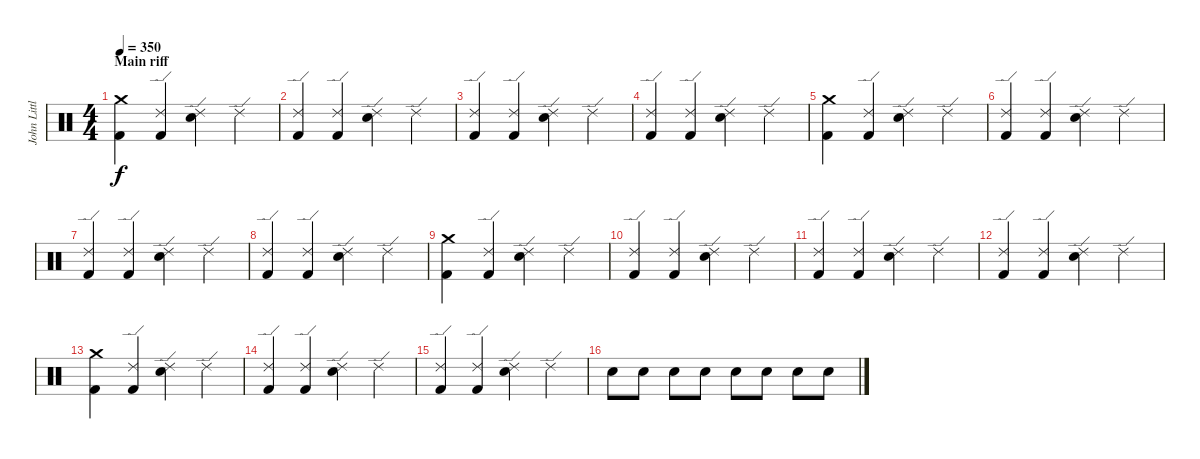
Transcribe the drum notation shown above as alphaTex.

\track ("John Littler - Drums" "John Littl") {instrument percussion}
\staff {score}
\articulation defaults
\ts (4 4)
\section ("" "Main riff")
\tempo 350
\clef neutral
\ks c
("Crash medium (hit)" "Kick (hit) 2").4{dy f} ("Ride (edge) 2" "Kick (hit) 2").4 ("Ride (edge) 2" "Snare (hit) 2").4 "Ride (edge) 2".4 |
("Ride (edge) 2" "Kick (hit) 2").4 ("Ride (edge) 2" "Kick (hit) 2").4 ("Ride (edge) 2" "Snare (hit) 2").4 "Ride (edge) 2".4 |
("Ride (edge) 2" "Kick (hit) 2").4 ("Ride (edge) 2" "Kick (hit) 2").4 ("Ride (edge) 2" "Snare (hit) 2").4 "Ride (edge) 2".4 |
("Ride (edge) 2" "Kick (hit) 2").4 ("Ride (edge) 2" "Kick (hit) 2").4 ("Ride (edge) 2" "Snare (hit) 2").4 "Ride (edge) 2".4 |
("Crash medium (hit)" "Kick (hit) 2").4 ("Ride (edge) 2" "Kick (hit) 2").4 ("Ride (edge) 2" "Snare (hit) 2").4 "Ride (edge) 2".4 |
("Ride (edge) 2" "Kick (hit) 2").4 ("Ride (edge) 2" "Kick (hit) 2").4 ("Ride (edge) 2" "Snare (hit) 2").4 "Ride (edge) 2".4 |
("Ride (edge) 2" "Kick (hit) 2").4 ("Ride (edge) 2" "Kick (hit) 2").4 ("Ride (edge) 2" "Snare (hit) 2").4 "Ride (edge) 2".4 |
("Ride (edge) 2" "Kick (hit) 2").4 ("Ride (edge) 2" "Kick (hit) 2").4 ("Ride (edge) 2" "Snare (hit) 2").4 "Ride (edge) 2".4 |
("Crash medium (hit)" "Kick (hit) 2").4 ("Ride (edge) 2" "Kick (hit) 2").4 ("Ride (edge) 2" "Snare (hit) 2").4 "Ride (edge) 2".4 |
("Ride (edge) 2" "Kick (hit) 2").4 ("Ride (edge) 2" "Kick (hit) 2").4 ("Ride (edge) 2" "Snare (hit) 2").4 "Ride (edge) 2".4 |
("Ride (edge) 2" "Kick (hit) 2").4 ("Ride (edge) 2" "Kick (hit) 2").4 ("Ride (edge) 2" "Snare (hit) 2").4 "Ride (edge) 2".4 |
("Ride (edge) 2" "Kick (hit) 2").4 ("Ride (edge) 2" "Kick (hit) 2").4 ("Ride (edge) 2" "Snare (hit) 2").4 "Ride (edge) 2".4 |
("Crash medium (hit)" "Kick (hit) 2").4 ("Ride (edge) 2" "Kick (hit) 2").4 ("Ride (edge) 2" "Snare (hit) 2").4 "Ride (edge) 2".4 |
("Ride (edge) 2" "Kick (hit) 2").4 ("Ride (edge) 2" "Kick (hit) 2").4 ("Ride (edge) 2" "Snare (hit) 2").4 "Ride (edge) 2".4 |
("Ride (edge) 2" "Kick (hit) 2").4 ("Ride (edge) 2" "Kick (hit) 2").4 ("Ride (edge) 2" "Snare (hit) 2").4 "Ride (edge) 2".4 |
"Snare (hit) 2".8 "Snare (hit) 2".8 "Snare (hit) 2".8 "Snare (hit) 2".8 "Snare (hit) 2".8 "Snare (hit) 2".8 "Snare (hit) 2".8 "Snare (hit) 2".8
